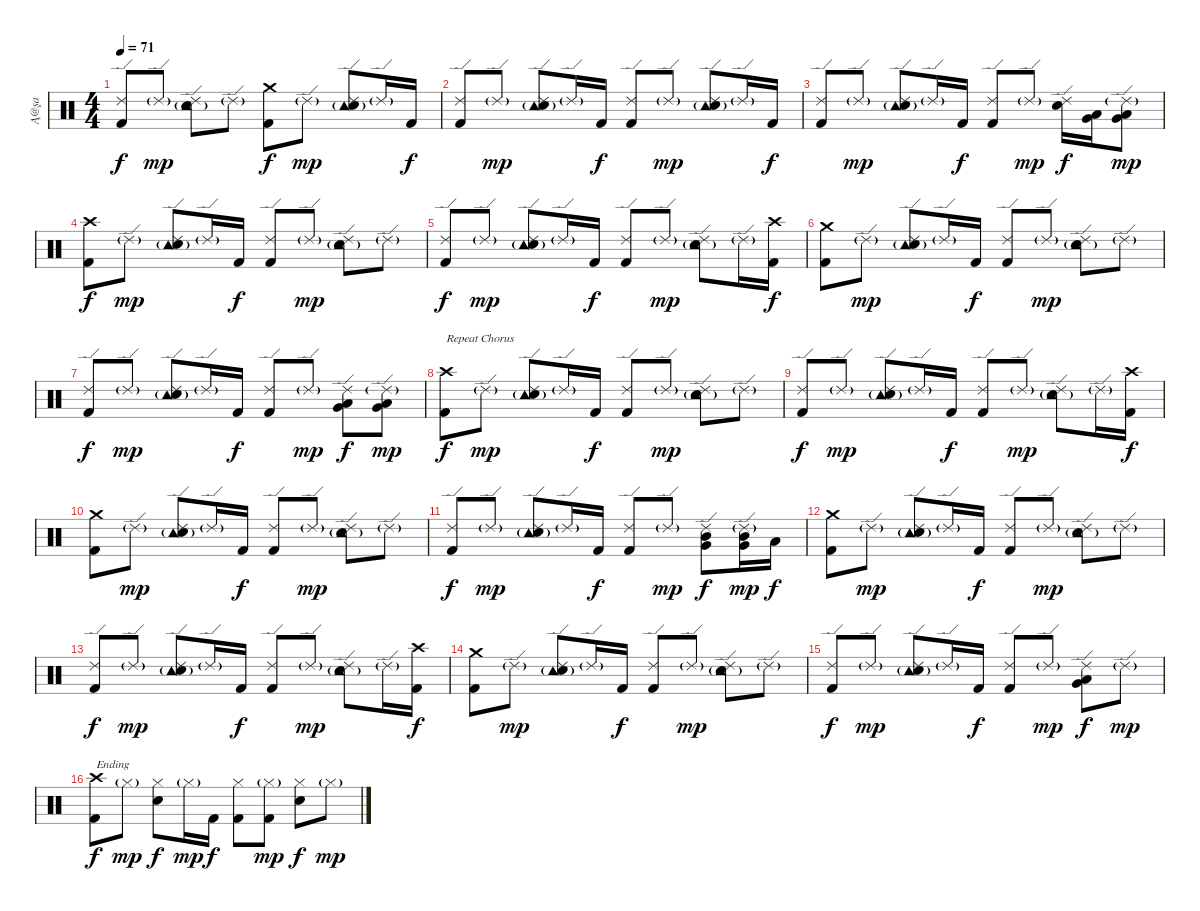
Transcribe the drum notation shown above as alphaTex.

\track ("Ą@şa" "Ą@şa") {instrument percussion}
\staff {score}
\articulation defaults
\ts (4 4)
\tempo 71
\clef neutral
\ks c
("Ride (edge) 2" "Kick (hit) 2").8{dy f} "Ride (edge) 2"{g}.8{dy mp} ("Ride (edge) 2" "Tambourine (hit)"{g} "Electric Snare (hit)").8 "Ride (edge) 2"{g}.8 ("Crash medium (hit)" "Kick (hit) 2").8{dy f} "Ride (edge) 2"{g}.8{dy mp} ("Ride (edge) 2" "Tambourine (hit)"{g} "Electric Snare (hit)").8 "Ride (edge) 2"{g}.16 "Kick (hit) 2".16{dy f} |
("Ride (edge) 2" "Kick (hit) 2").8 "Ride (edge) 2"{g}.8{dy mp} ("Ride (edge) 2" "Tambourine (hit)"{g} "Electric Snare (hit)").8 "Ride (edge) 2"{g}.16 "Kick (hit) 2".16{dy f} ("Ride (edge) 2" "Kick (hit) 2").8 "Ride (edge) 2"{g}.8{dy mp} ("Ride (edge) 2" "Tambourine (hit)"{g} "Electric Snare (hit)").8 "Ride (edge) 2"{g}.16 "Kick (hit) 2".16{dy f} |
("Ride (edge) 2" "Kick (hit) 2").8 "Ride (edge) 2"{g}.8{dy mp} ("Ride (edge) 2" "Tambourine (hit)"{g} "Electric Snare (hit)").8 "Ride (edge) 2"{g}.16 "Kick (hit) 2".16{dy f} ("Ride (edge) 2" "Kick (hit) 2").8 "Ride (edge) 2"{g}.8{dy mp} ("Ride (edge) 2" "Electric Snare (hit)").16{dy f} ("Low Tom (hit)" "Very Low Tom (hit)").16 ("Ride (edge) 2"{g} "Low Tom (hit)" "Very Low Tom (hit)").8{dy mp} |
("Crash high (hit)" "Kick (hit) 2").8{dy f} "Ride (edge) 2"{g}.8{dy mp} ("Ride (edge) 2" "Tambourine (hit)"{g} "Electric Snare (hit)").8 "Ride (edge) 2"{g}.16 "Kick (hit) 2".16{dy f} ("Ride (edge) 2" "Kick (hit) 2").8 "Ride (edge) 2"{g}.8{dy mp} ("Ride (edge) 2" "Tambourine (hit)"{g} "Electric Snare (hit)").8 "Ride (edge) 2"{g}.8 |
("Ride (edge) 2" "Kick (hit) 2").8{dy f} "Ride (edge) 2"{g}.8{dy mp} ("Ride (edge) 2" "Tambourine (hit)"{g} "Electric Snare (hit)").8 "Ride (edge) 2"{g}.16 "Kick (hit) 2".16{dy f} ("Ride (edge) 2" "Kick (hit) 2").8 "Ride (edge) 2"{g}.8{dy mp} ("Ride (edge) 2" "Tambourine (hit)"{g} "Electric Snare (hit)").8 "Ride (edge) 2"{g}.16 ("Crash high (hit)" "Kick (hit) 2").16{dy f} |
("Crash medium (hit)" "Kick (hit) 2").8 "Ride (edge) 2"{g}.8{dy mp} ("Ride (edge) 2" "Tambourine (hit)"{g} "Electric Snare (hit)").8 "Ride (edge) 2"{g}.16 "Kick (hit) 2".16{dy f} ("Ride (edge) 2" "Kick (hit) 2").8 "Ride (edge) 2"{g}.8{dy mp} ("Ride (edge) 2" "Tambourine (hit)"{g} "Electric Snare (hit)").8 "Ride (edge) 2"{g}.8 |
("Ride (edge) 2" "Kick (hit) 2").8{dy f} "Ride (edge) 2"{g}.8{dy mp} ("Ride (edge) 2" "Tambourine (hit)"{g} "Electric Snare (hit)").8 "Ride (edge) 2"{g}.16 "Kick (hit) 2".16{dy f} ("Ride (edge) 2" "Kick (hit) 2").8 "Ride (edge) 2"{g}.8{dy mp} ("Ride (edge) 2" "Low Tom (hit)" "Very Low Tom (hit)").8{dy f volume 16} ("Ride (edge) 2"{g} "Low Tom (hit)" "Very Low Tom (hit)").8{dy mp} |
("Crash high (hit)" "Kick (hit) 2").8{txt "Repeat Chorus" dy f volume 13} "Ride (edge) 2"{g}.8{dy mp} ("Ride (edge) 2" "Tambourine (hit)"{g} "Electric Snare (hit)").8 "Ride (edge) 2"{g}.16 "Kick (hit) 2".16{dy f} ("Ride (edge) 2" "Kick (hit) 2").8 "Ride (edge) 2"{g}.8{dy mp} ("Ride (edge) 2" "Tambourine (hit)"{g} "Electric Snare (hit)").8 "Ride (edge) 2"{g}.8 |
("Ride (edge) 2" "Kick (hit) 2").8{dy f} "Ride (edge) 2"{g}.8{dy mp} ("Ride (edge) 2" "Tambourine (hit)"{g} "Electric Snare (hit)").8 "Ride (edge) 2"{g}.16 "Kick (hit) 2".16{dy f} ("Ride (edge) 2" "Kick (hit) 2").8 "Ride (edge) 2"{g}.8{dy mp} ("Ride (edge) 2" "Tambourine (hit)"{g} "Electric Snare (hit)").8 "Ride (edge) 2"{g}.16 ("Crash high (hit)" "Kick (hit) 2").16{dy f} |
("Crash medium (hit)" "Kick (hit) 2").8 "Ride (edge) 2"{g}.8{dy mp} ("Ride (edge) 2" "Tambourine (hit)"{g} "Electric Snare (hit)").8 "Ride (edge) 2"{g}.16 "Kick (hit) 2".16{dy f} ("Ride (edge) 2" "Kick (hit) 2").8 "Ride (edge) 2"{g}.8{dy mp} ("Ride (edge) 2" "Tambourine (hit)"{g} "Electric Snare (hit)").8 "Ride (edge) 2"{g}.8 |
("Ride (edge) 2" "Kick (hit) 2").8{dy f} "Ride (edge) 2"{g}.8{dy mp} ("Ride (edge) 2" "Tambourine (hit)"{g} "Electric Snare (hit)").8 "Ride (edge) 2"{g}.16 "Kick (hit) 2".16{dy f} ("Ride (edge) 2" "Kick (hit) 2").8 "Ride (edge) 2"{g}.8{dy mp} ("Ride (edge) 2" "Mid Tom (hit)" "Very Low Tom (hit)").8{dy f volume 16} ("Ride (edge) 2"{g} "Mid Tom (hit)" "Very Low Tom (hit)").16{dy mp} "Low Tom (hit)".16{dy f} |
("Crash medium (hit)" "Kick (hit) 2").8{volume 13} "Ride (edge) 2"{g}.8{dy mp} ("Ride (edge) 2" "Tambourine (hit)"{g} "Electric Snare (hit)").8 "Ride (edge) 2"{g}.16 "Kick (hit) 2".16{dy f} ("Ride (edge) 2" "Kick (hit) 2").8 "Ride (edge) 2"{g}.8{dy mp} ("Ride (edge) 2" "Tambourine (hit)"{g} "Electric Snare (hit)").8 "Ride (edge) 2"{g}.8 |
("Ride (edge) 2" "Kick (hit) 2").8{dy f} "Ride (edge) 2"{g}.8{dy mp} ("Ride (edge) 2" "Tambourine (hit)"{g} "Electric Snare (hit)").8 "Ride (edge) 2"{g}.16 "Kick (hit) 2".16{dy f} ("Ride (edge) 2" "Kick (hit) 2").8 "Ride (edge) 2"{g}.8{dy mp} ("Ride (edge) 2" "Tambourine (hit)"{g} "Electric Snare (hit)").8 "Ride (edge) 2"{g}.16 ("Crash high (hit)" "Kick (hit) 2").16{dy f} |
("Crash medium (hit)" "Kick (hit) 2").8 "Ride (edge) 2"{g}.8{dy mp} ("Ride (edge) 2" "Tambourine (hit)"{g} "Electric Snare (hit)").8 "Ride (edge) 2"{g}.16 "Kick (hit) 2".16{dy f} ("Ride (edge) 2" "Kick (hit) 2").8 "Ride (edge) 2"{g}.8{dy mp} ("Ride (edge) 2" "Tambourine (hit)"{g} "Electric Snare (hit)").8 "Ride (edge) 2"{g}.8 |
("Ride (edge) 2" "Kick (hit) 2").8{dy f} "Ride (edge) 2"{g}.8{dy mp} ("Ride (edge) 2" "Tambourine (hit)"{g} "Electric Snare (hit)").8 "Ride (edge) 2"{g}.16 "Kick (hit) 2".16{dy f} ("Ride (edge) 2" "Kick (hit) 2").8 "Ride (edge) 2"{g}.8{dy mp} ("Ride (edge) 2" "Low Tom (hit)" "Very Low Tom (hit)").8{dy f volume 16} "Ride (edge) 2"{g}.8{dy mp} |
("Crash high (hit)" "Kick (hit) 2").8{txt "Ending" dy f volume 13} "Hi-Hat (closed)"{g}.8{dy mp} ("Hi-Hat (closed)" "Electric Snare (hit)").8{dy f} "Hi-Hat (closed)"{g}.16{dy mp} "Kick (hit) 2".16{dy f} ("Hi-Hat (closed)" "Kick (hit) 2").8 ("Hi-Hat (closed)"{g} "Kick (hit) 2").8{dy mp} ("Hi-Hat (closed)" "Electric Snare (hit)").8{dy f} "Hi-Hat (closed)"{g}.8{dy mp}
